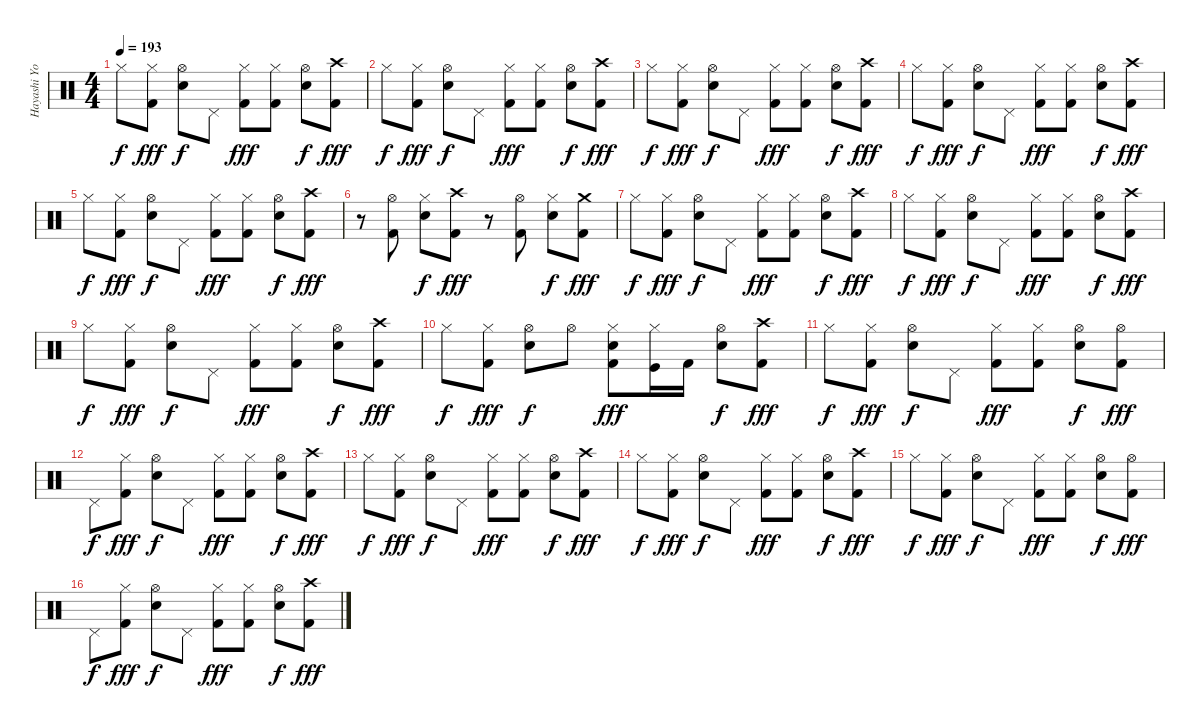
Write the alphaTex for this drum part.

\track ("Hayashi Yoshiki(Yoshiki)" "Hayashi Yo") {instrument percussion}
\staff {score}
\articulation defaults
\ts (4 4)
\tempo 193
\clef neutral
\ks c "Hi-Hat (closed)".8{dy f}
("Hi-Hat (closed)" "Kick (hit) 2").8{dy fff} ("Hi-Hat (open)" "Electric Snare (hit)").8{dy f} "Pedal Hi-Hat (hit)".8 ("Hi-Hat (closed)" "Kick (hit) 2").8{dy fff} ("Hi-Hat (closed)" "Kick (hit) 2").8 ("Hi-Hat (open)" "Electric Snare (hit)").8{dy f} ("Crash high (hit)" "Kick (hit) 2").8{dy fff} |
"Hi-Hat (closed)".8{dy f} ("Hi-Hat (closed)" "Kick (hit) 2").8{dy fff} ("Hi-Hat (open)" "Electric Snare (hit)").8{dy f} "Pedal Hi-Hat (hit)".8 ("Hi-Hat (closed)" "Kick (hit) 2").8{dy fff} ("Hi-Hat (closed)" "Kick (hit) 2").8 ("Hi-Hat (open)" "Electric Snare (hit)").8{dy f} ("Crash high (hit)" "Kick (hit) 2").8{dy fff} |
"Hi-Hat (closed)".8{dy f} ("Hi-Hat (closed)" "Kick (hit) 2").8{dy fff} ("Hi-Hat (open)" "Electric Snare (hit)").8{dy f} "Pedal Hi-Hat (hit)".8 ("Hi-Hat (closed)" "Kick (hit) 2").8{dy fff} ("Hi-Hat (closed)" "Kick (hit) 2").8 ("Hi-Hat (open)" "Electric Snare (hit)").8{dy f} ("Crash high (hit)" "Kick (hit) 2").8{dy fff} |
"Hi-Hat (closed)".8{dy f} ("Hi-Hat (closed)" "Kick (hit) 2").8{dy fff} ("Hi-Hat (open)" "Electric Snare (hit)").8{dy f} "Pedal Hi-Hat (hit)".8 ("Hi-Hat (closed)" "Kick (hit) 2").8{dy fff} ("Hi-Hat (closed)" "Kick (hit) 2").8 ("Hi-Hat (open)" "Electric Snare (hit)").8{dy f} ("Crash high (hit)" "Kick (hit) 2").8{dy fff} |
"Hi-Hat (closed)".8{dy f} ("Hi-Hat (closed)" "Kick (hit) 2").8{dy fff} ("Hi-Hat (open)" "Electric Snare (hit)").8{dy f} "Pedal Hi-Hat (hit)".8 ("Hi-Hat (closed)" "Kick (hit) 2").8{dy fff} ("Hi-Hat (closed)" "Kick (hit) 2").8 ("Hi-Hat (open)" "Electric Snare (hit)").8{dy f} ("Crash high (hit)" "Kick (hit) 2").8{dy fff} |
r.8 ("Hi-Hat (open)" "Kick (hit) 2").8 ("Hi-Hat (closed)" "Electric Snare (hit)").8{dy f} ("Crash high (hit)" "Kick (hit) 2").8{dy fff} r.8 ("Hi-Hat (open)" "Kick (hit) 2").8 ("Hi-Hat (closed)" "Electric Snare (hit)").8{dy f} ("Crash medium (hit)" "Kick (hit) 2").8{dy fff} |
"Hi-Hat (closed)".8{dy f} ("Hi-Hat (closed)" "Kick (hit) 2").8{dy fff} ("Hi-Hat (open)" "Electric Snare (hit)").8{dy f} "Pedal Hi-Hat (hit)".8 ("Hi-Hat (closed)" "Kick (hit) 2").8{dy fff} ("Hi-Hat (closed)" "Kick (hit) 2").8 ("Hi-Hat (open)" "Electric Snare (hit)").8{dy f} ("Crash high (hit)" "Kick (hit) 2").8{dy fff} |
"Hi-Hat (closed)".8{dy f} ("Hi-Hat (closed)" "Kick (hit) 2").8{dy fff} ("Hi-Hat (open)" "Electric Snare (hit)").8{dy f} "Pedal Hi-Hat (hit)".8 ("Hi-Hat (closed)" "Kick (hit) 2").8{dy fff} ("Hi-Hat (closed)" "Kick (hit) 2").8 ("Hi-Hat (open)" "Electric Snare (hit)").8{dy f} ("Crash high (hit)" "Kick (hit) 2").8{dy fff} |
"Hi-Hat (closed)".8{dy f} ("Hi-Hat (closed)" "Kick (hit) 2").8{dy fff} ("Hi-Hat (open)" "Electric Snare (hit)").8{dy f} "Pedal Hi-Hat (hit)".8 ("Hi-Hat (closed)" "Kick (hit) 2").8{dy fff} ("Hi-Hat (closed)" "Kick (hit) 2").8 ("Hi-Hat (open)" "Electric Snare (hit)").8{dy f} ("Crash high (hit)" "Kick (hit) 2").8{dy fff} |
"Hi-Hat (closed)".8{dy f} ("Hi-Hat (closed)" "Kick (hit) 2").8{dy fff} ("Hi-Hat (open)" "Electric Snare (hit)").8{dy f} "Hi-Hat (open)".8 ("Hi-Hat (closed)" "Electric Snare (hit)" "Kick (hit) 2").8{dy fff} ("Hi-Hat (closed)" "Kick (hit)").16 "Kick (hit) 2".16 ("Hi-Hat (open)" "Electric Snare (hit)").8{dy f} ("Crash high (hit)" "Kick (hit) 2").8{dy fff} |
"Hi-Hat (closed)".8{dy f} ("Hi-Hat (closed)" "Kick (hit) 2").8{dy fff} ("Hi-Hat (open)" "Electric Snare (hit)").8{dy f} "Pedal Hi-Hat (hit)".8 ("Hi-Hat (closed)" "Kick (hit) 2").8{dy fff} ("Hi-Hat (closed)" "Kick (hit) 2").8 ("Hi-Hat (open)" "Electric Snare (hit)").8{dy f} ("Hi-Hat (open)" "Kick (hit) 2").8{dy fff} |
"Pedal Hi-Hat (hit)".8{dy f} ("Hi-Hat (closed)" "Kick (hit) 2").8{dy fff} ("Hi-Hat (open)" "Electric Snare (hit)").8{dy f} "Pedal Hi-Hat (hit)".8 ("Hi-Hat (closed)" "Kick (hit) 2").8{dy fff} ("Hi-Hat (closed)" "Kick (hit) 2").8 ("Hi-Hat (open)" "Electric Snare (hit)").8{dy f} ("Crash high (hit)" "Kick (hit) 2").8{dy fff} |
"Hi-Hat (closed)".8{dy f} ("Hi-Hat (closed)" "Kick (hit) 2").8{dy fff} ("Hi-Hat (open)" "Electric Snare (hit)").8{dy f} "Pedal Hi-Hat (hit)".8 ("Hi-Hat (closed)" "Kick (hit) 2").8{dy fff} ("Hi-Hat (closed)" "Kick (hit) 2").8 ("Hi-Hat (open)" "Electric Snare (hit)").8{dy f} ("Crash high (hit)" "Kick (hit) 2").8{dy fff} |
"Hi-Hat (closed)".8{dy f} ("Hi-Hat (closed)" "Kick (hit) 2").8{dy fff} ("Hi-Hat (open)" "Electric Snare (hit)").8{dy f} "Pedal Hi-Hat (hit)".8 ("Hi-Hat (closed)" "Kick (hit) 2").8{dy fff} ("Hi-Hat (closed)" "Kick (hit) 2").8 ("Hi-Hat (open)" "Electric Snare (hit)").8{dy f} ("Crash high (hit)" "Kick (hit) 2").8{dy fff} |
"Hi-Hat (closed)".8{dy f} ("Hi-Hat (closed)" "Kick (hit) 2").8{dy fff} ("Hi-Hat (open)" "Electric Snare (hit)").8{dy f} "Pedal Hi-Hat (hit)".8 ("Hi-Hat (closed)" "Kick (hit) 2").8{dy fff} ("Hi-Hat (closed)" "Kick (hit) 2").8 ("Hi-Hat (open)" "Electric Snare (hit)").8{dy f} ("Hi-Hat (open)" "Kick (hit) 2").8{dy fff} |
"Pedal Hi-Hat (hit)".8{dy f} ("Hi-Hat (closed)" "Kick (hit) 2").8{dy fff} ("Hi-Hat (open)" "Electric Snare (hit)").8{dy f} "Pedal Hi-Hat (hit)".8 ("Hi-Hat (closed)" "Kick (hit) 2").8{dy fff} ("Hi-Hat (closed)" "Kick (hit) 2").8 ("Hi-Hat (open)" "Electric Snare (hit)").8{dy f} ("Crash high (hit)" "Kick (hit) 2").8{dy fff}
